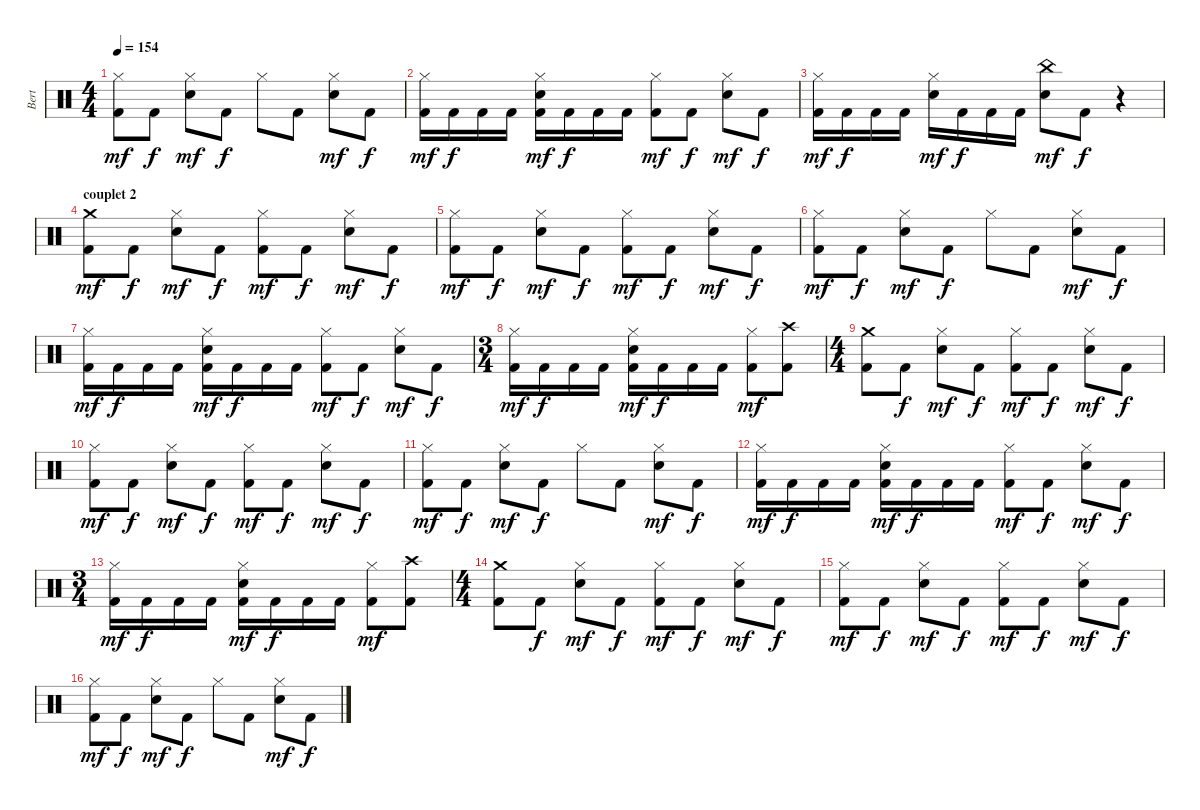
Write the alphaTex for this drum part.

\track ("Bert" "Bert") {instrument percussion}
\staff {score}
\articulation defaults
\ts (4 4)
\tempo 154
\clef neutral
\ks c
("Hi-Hat (closed)" "Kick (hit) 2").8{dy mf} "Kick (hit) 2".8{dy f} ("Hi-Hat (closed)" "Snare (hit) 2").8{dy mf} "Kick (hit) 2".8{dy f} "Hi-Hat (closed)".8 "Kick (hit) 2".8 ("Hi-Hat (closed)" "Snare (hit) 2").8{dy mf} "Kick (hit) 2".8{dy f} |
("Hi-Hat (closed)" "Kick (hit) 2").16{dy mf} "Kick (hit) 2".16{dy f} "Kick (hit) 2".16 "Kick (hit) 2".16 ("Hi-Hat (closed)" "Snare (hit) 2" "Kick (hit) 2").16{dy mf} "Kick (hit) 2".16{dy f} "Kick (hit) 2".16 "Kick (hit) 2".16 ("Hi-Hat (closed)" "Kick (hit) 2").8{dy mf} "Kick (hit) 2".8{dy f} ("Hi-Hat (closed)" "Snare (hit) 2").8{dy mf} "Kick (hit) 2".8{dy f} |
("Hi-Hat (closed)" "Kick (hit) 2").16{dy mf} "Kick (hit) 2".16{dy f} "Kick (hit) 2".16 "Kick (hit) 2".16 ("Hi-Hat (closed)" "Snare (hit) 2").16{dy mf} "Kick (hit) 2".16{dy f} "Kick (hit) 2".16 "Kick (hit) 2".16 ("China (hit)" "Snare (hit) 2").8{dy mf} "Kick (hit) 2".8{dy f} r.4 |
\section ("" "couplet 2")
("Crash medium (hit)" "Kick (hit) 2").8{dy mf} "Kick (hit) 2".8{dy f} ("Hi-Hat (closed)" "Snare (hit) 2").8{dy mf} "Kick (hit) 2".8{dy f} ("Hi-Hat (closed)" "Kick (hit) 2").8{dy mf} "Kick (hit) 2".8{dy f} ("Hi-Hat (closed)" "Snare (hit) 2").8{dy mf} "Kick (hit) 2".8{dy f} |
("Hi-Hat (closed)" "Kick (hit) 2").8{dy mf} "Kick (hit) 2".8{dy f} ("Hi-Hat (closed)" "Snare (hit) 2").8{dy mf} "Kick (hit) 2".8{dy f} ("Hi-Hat (closed)" "Kick (hit) 2").8{dy mf} "Kick (hit) 2".8{dy f} ("Hi-Hat (closed)" "Snare (hit) 2").8{dy mf} "Kick (hit) 2".8{dy f} |
("Hi-Hat (closed)" "Kick (hit) 2").8{dy mf} "Kick (hit) 2".8{dy f} ("Hi-Hat (closed)" "Snare (hit) 2").8{dy mf} "Kick (hit) 2".8{dy f} "Hi-Hat (closed)".8 "Kick (hit) 2".8 ("Hi-Hat (closed)" "Snare (hit) 2").8{dy mf} "Kick (hit) 2".8{dy f} |
("Hi-Hat (closed)" "Kick (hit) 2").16{dy mf} "Kick (hit) 2".16{dy f} "Kick (hit) 2".16 "Kick (hit) 2".16 ("Hi-Hat (closed)" "Snare (hit) 2" "Kick (hit) 2").16{dy mf} "Kick (hit) 2".16{dy f} "Kick (hit) 2".16 "Kick (hit) 2".16 ("Hi-Hat (closed)" "Kick (hit) 2").8{dy mf} "Kick (hit) 2".8{dy f} ("Hi-Hat (closed)" "Snare (hit) 2").8{dy mf} "Kick (hit) 2".8{dy f} |
\ts (3 4)
("Hi-Hat (closed)" "Kick (hit) 2").16{dy mf} "Kick (hit) 2".16{dy f} "Kick (hit) 2".16 "Kick (hit) 2".16 ("Hi-Hat (closed)" "Snare (hit) 2" "Kick (hit) 2").16{dy mf} "Kick (hit) 2".16{dy f} "Kick (hit) 2".16 "Kick (hit) 2".16 ("Hi-Hat (closed)" "Kick (hit) 2").8{dy mf} ("Crash high (hit)" "Kick (hit) 2").8 |
\ts (4 4)
("Crash medium (hit)" "Kick (hit) 2").8 "Kick (hit) 2".8{dy f} ("Hi-Hat (closed)" "Snare (hit) 2").8{dy mf} "Kick (hit) 2".8{dy f} ("Hi-Hat (closed)" "Kick (hit) 2").8{dy mf} "Kick (hit) 2".8{dy f} ("Hi-Hat (closed)" "Snare (hit) 2").8{dy mf} "Kick (hit) 2".8{dy f} |
("Hi-Hat (closed)" "Kick (hit) 2").8{dy mf} "Kick (hit) 2".8{dy f} ("Hi-Hat (closed)" "Snare (hit) 2").8{dy mf} "Kick (hit) 2".8{dy f} ("Hi-Hat (closed)" "Kick (hit) 2").8{dy mf} "Kick (hit) 2".8{dy f} ("Hi-Hat (closed)" "Snare (hit) 2").8{dy mf} "Kick (hit) 2".8{dy f} |
("Hi-Hat (closed)" "Kick (hit) 2").8{dy mf} "Kick (hit) 2".8{dy f} ("Hi-Hat (closed)" "Snare (hit) 2").8{dy mf} "Kick (hit) 2".8{dy f} "Hi-Hat (closed)".8 "Kick (hit) 2".8 ("Hi-Hat (closed)" "Snare (hit) 2").8{dy mf} "Kick (hit) 2".8{dy f} |
("Hi-Hat (closed)" "Kick (hit) 2").16{dy mf} "Kick (hit) 2".16{dy f} "Kick (hit) 2".16 "Kick (hit) 2".16 ("Hi-Hat (closed)" "Snare (hit) 2" "Kick (hit) 2").16{dy mf} "Kick (hit) 2".16{dy f} "Kick (hit) 2".16 "Kick (hit) 2".16 ("Hi-Hat (closed)" "Kick (hit) 2").8{dy mf} "Kick (hit) 2".8{dy f} ("Hi-Hat (closed)" "Snare (hit) 2").8{dy mf} "Kick (hit) 2".8{dy f} |
\ts (3 4)
("Hi-Hat (closed)" "Kick (hit) 2").16{dy mf} "Kick (hit) 2".16{dy f} "Kick (hit) 2".16 "Kick (hit) 2".16 ("Hi-Hat (closed)" "Snare (hit) 2" "Kick (hit) 2").16{dy mf} "Kick (hit) 2".16{dy f} "Kick (hit) 2".16 "Kick (hit) 2".16 ("Hi-Hat (closed)" "Kick (hit) 2").8{dy mf} ("Crash high (hit)" "Kick (hit) 2").8 |
\ts (4 4)
("Crash medium (hit)" "Kick (hit) 2").8 "Kick (hit) 2".8{dy f} ("Hi-Hat (closed)" "Snare (hit) 2").8{dy mf} "Kick (hit) 2".8{dy f} ("Hi-Hat (closed)" "Kick (hit) 2").8{dy mf} "Kick (hit) 2".8{dy f} ("Hi-Hat (closed)" "Snare (hit) 2").8{dy mf} "Kick (hit) 2".8{dy f} |
("Hi-Hat (closed)" "Kick (hit) 2").8{dy mf} "Kick (hit) 2".8{dy f} ("Hi-Hat (closed)" "Snare (hit) 2").8{dy mf} "Kick (hit) 2".8{dy f} ("Hi-Hat (closed)" "Kick (hit) 2").8{dy mf} "Kick (hit) 2".8{dy f} ("Hi-Hat (closed)" "Snare (hit) 2").8{dy mf} "Kick (hit) 2".8{dy f} |
("Hi-Hat (closed)" "Kick (hit) 2").8{dy mf} "Kick (hit) 2".8{dy f} ("Hi-Hat (closed)" "Snare (hit) 2").8{dy mf} "Kick (hit) 2".8{dy f} "Hi-Hat (closed)".8 "Kick (hit) 2".8 ("Hi-Hat (closed)" "Snare (hit) 2").8{dy mf} "Kick (hit) 2".8{dy f}
